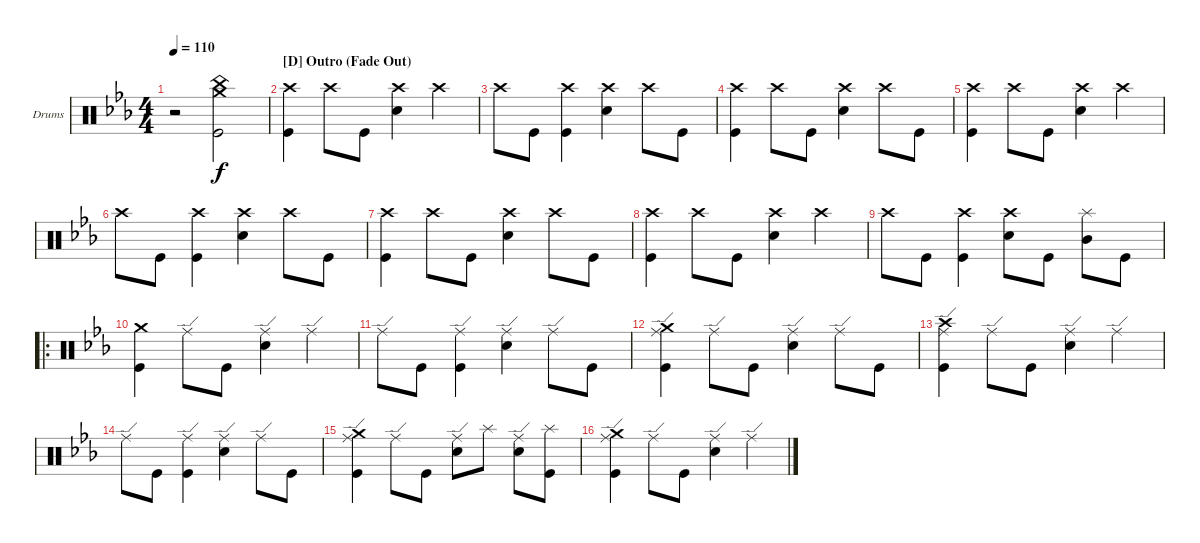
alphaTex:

\defaultSystemsLayout 4
\bracketExtendMode groupsimilarinstruments
\firstSystemTrackNameOrientation horizontal
\otherSystemsTrackNameOrientation horizontal
\track ("Drumkit" "Drums") {instrument percussion}
\staff {score}
\articulation defaults
\ts (4 4)
\tempo 110
\clef neutral
\scale
0.333333
\ks cminor
r.2{dy f} ("Kick (hit)" "Crash medium (hit)" "China (hit)").2 |
\section ("D" "Outro (Fade Out)")
\scale
0.377778 ("Crash high (hit)" "Kick (hit)").4 "Crash high (hit)".8 "Kick (hit)".8 ("Crash high (hit)" "Snare (hit) 2").4 "Crash high (hit)".4 |
\scale
0.311111 "Crash high (hit)".8 "Kick (hit)".8 ("Kick (hit)" "Crash high (hit)").4 ("Crash high (hit)" "Snare (hit) 2").4 "Crash high (hit)".8 "Kick (hit)".8 |
\scale
0.311111 ("Kick (hit)" "Crash high (hit)").4 "Crash high (hit)".8 "Kick (hit)".8 ("Crash high (hit)" "Snare (hit) 2").4 "Crash high (hit)".8 "Kick (hit)".8 |
\scale
0.333333 ("Crash high (hit)" "Kick (hit)").4 "Crash high (hit)".8 "Kick (hit)".8 ("Crash high (hit)" "Snare (hit) 2").4 "Crash high (hit)".4 |
\scale
0.333333 "Crash high (hit)".8 "Kick (hit)".8 ("Kick (hit)" "Crash high (hit)").4 ("Crash high (hit)" "Snare (hit) 2").4 "Crash high (hit)".8 "Kick (hit)".8 |
\scale
0.333333 ("Kick (hit)" "Crash high (hit)").4 "Crash high (hit)".8 "Kick (hit)".8 ("Crash high (hit)" "Snare (hit) 2").4 "Crash high (hit)".8 "Kick (hit)".8 |
("Crash high (hit)" "Kick (hit)").4 "Crash high (hit)".8 "Kick (hit)".8 ("Crash high (hit)" "Snare (hit) 2").4 "Crash high (hit)".4 |
"Crash high (hit)".8 "Kick (hit)".8 ("Kick (hit)" "Crash high (hit)").4 ("Crash high (hit)" "Snare (hit) 2").8 "Kick (hit)".8 ("Splash (hit)" "Mid Tom (hit)").8 "Kick (hit)".8 |
\ro
("Kick (hit)" "Crash medium (hit)").4 "Ride (edge)".8 "Kick (hit)".8 ("Snare (hit) 2" "Ride (edge)").4 "Ride (edge)".4 |
"Ride (edge)".8 "Kick (hit)".8 ("Kick (hit)" "Ride (edge)").4 ("Snare (hit) 2" "Ride (edge)").4 "Ride (edge)".8 "Kick (hit)".8 |
("Kick (hit)" "Crash medium (hit)" "Ride (edge)").4 "Ride (edge)".8 "Kick (hit)".8 ("Snare (hit) 2" "Ride (edge)").4 "Ride (edge)".8 "Kick (hit)".8 |
("Kick (hit)" "Ride (edge)" "Crash high (hit)").4 "Ride (edge)".8 "Kick (hit)".8 ("Snare (hit) 2" "Ride (edge)").4 "Ride (edge)".4 |
"Ride (edge)".8 "Kick (hit)".8 ("Kick (hit)" "Ride (edge)").4 ("Snare (hit) 2" "Ride (edge)").4 "Ride (edge)".8 "Kick (hit)".8 |
("Kick (hit)" "Ride (edge)" "Crash medium (hit)").4 "Ride (edge)".8 "Kick (hit)".8 ("Snare (hit) 2" "Ride (edge)").8 "Splash (hit)".8 ("Ride (edge)" "Snare (hit) 2").8 ("Kick (hit)" "Splash (hit)").8 |
("Kick (hit)" "Crash medium (hit)" "Ride (edge)").4 "Ride (edge)".8 "Kick (hit)".8 ("Snare (hit) 2" "Ride (edge)").4 "Ride (edge)".4
